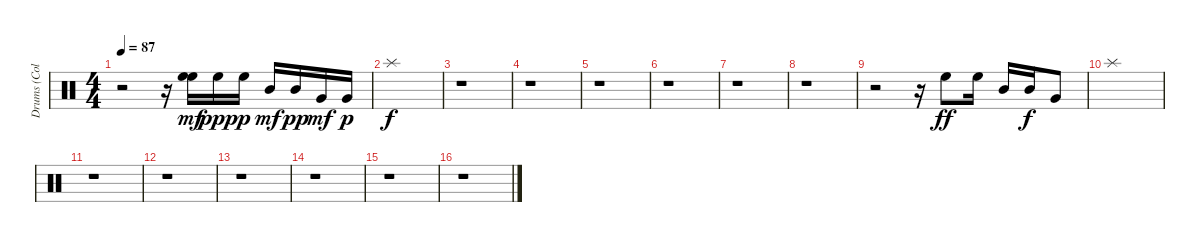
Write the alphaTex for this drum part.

\track ("Drums (Collins)" "Drums (Col") {instrument percussion}
\staff {score}
\articulation defaults
\ts (4 4)
\tempo 87
\clef neutral
\ks c
r.2{dy mf} r.16 ("High Floor Tom (hit)" "High Floor Tom (hit)").16 "High Floor Tom (hit)".16{dy ppp} "High Floor Tom (hit)".16{dy p} "Mid Tom (hit)".16{dy mf} "Mid Tom (hit)".16{dy pp} "Very Low Tom (hit)".16{dy mf} "Very Low Tom (hit)".16{dy p} |
"Splash (hit)".1{dy f} |
r.1 |
r.1 |
r.1 |
r.1 |
r.1 |
r.1 |
r.2 r.16 "High Floor Tom (hit)".8{dy ff} "High Floor Tom (hit)".16 "Mid Tom (hit)".16 "Mid Tom (hit)".16{dy f} "Very Low Tom (hit)".8 |
"Splash (hit)".1 |
r.1 |
r.1 |
r.1 |
r.1 |
r.1 |
r.1
